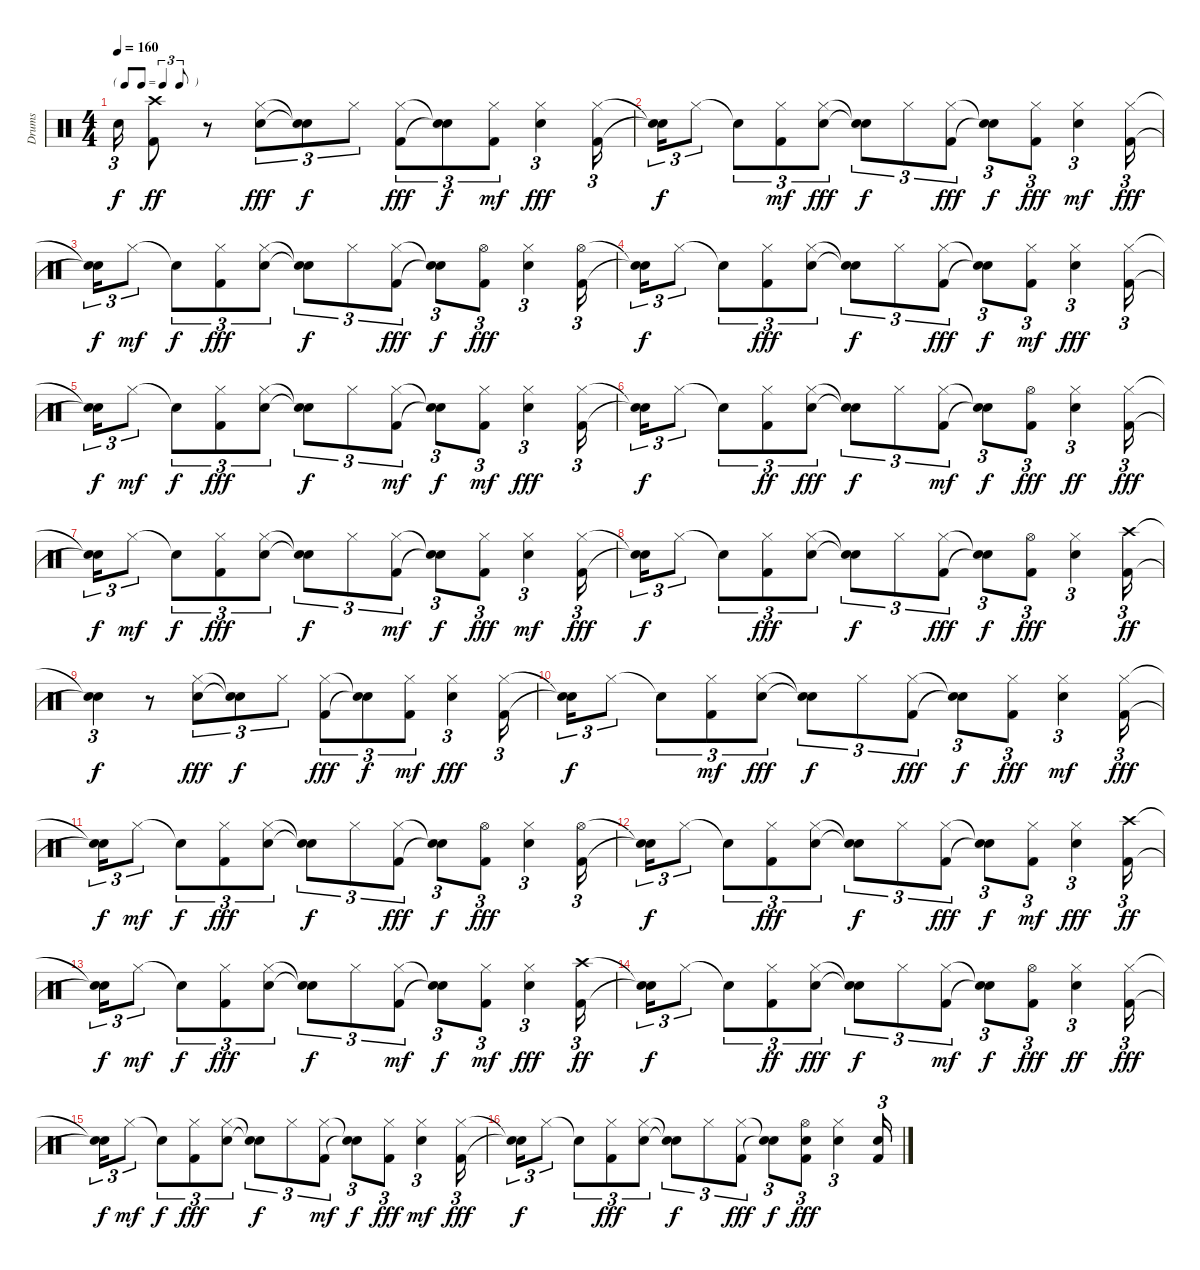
\track ("Drums" "Drums") {instrument percussion}
\staff {score}
\articulation defaults
\ts (4 4)
\tf triplet8th
\tempo 160
\clef neutral
\ks c "Snare (hit)"{t}.16{tu (3 2) dy f}
("Kick (hit) 2" "Crash high (hit)").8{dy ff} r.8 ("Hi-Hat (closed)" "Electric Snare (hit)").8{tu (3 2) dy fff} ("Snare (hit)"{t} "Snare (hit)"{t}).8{tu (3 2) dy f} "Hi-Hat (closed)".8{tu (3 2)} ("Kick (hit) 2" "Hi-Hat (closed)").8{tu (3 2) dy fff} ("Snare (hit)"{t} "Snare (hit)"{t}).8{tu (3 2) dy f} ("Kick (hit) 2" "Hi-Hat (closed)").8{tu (3 2) dy mf} ("Electric Snare (hit)" "Hi-Hat (closed)").4{tu (3 2) dy fff} ("Kick (hit) 2" "Hi-Hat (closed)").16{tu (3 2)} |
("Snare (hit)"{t} "Snare (hit)"{t}).16{tu (3 2) dy f} "Hi-Hat (closed)".8{tu (3 2)} "Snare (hit)"{t}.8{tu (3 2)} ("Kick (hit) 2" "Hi-Hat (closed)").8{tu (3 2) dy mf} ("Electric Snare (hit)" "Hi-Hat (closed)").8{tu (3 2) dy fff} ("Snare (hit)"{t} "Snare (hit)"{t}).8{tu (3 2) dy f} "Hi-Hat (closed)".8{tu (3 2)} ("Kick (hit) 2" "Hi-Hat (closed)").8{tu (3 2) dy fff} ("Snare (hit)"{t} "Snare (hit)"{t}).8{tu (3 2) dy f} ("Kick (hit) 2" "Hi-Hat (closed)").8{tu (3 2) dy fff} ("Electric Snare (hit)" "Hi-Hat (closed)").4{tu (3 2) dy mf} ("Kick (hit) 2" "Hi-Hat (closed)").16{tu (3 2) dy fff} |
("Snare (hit)"{t} "Snare (hit)"{t}).16{tu (3 2) dy f} "Hi-Hat (closed)".8{tu (3 2) dy mf} "Snare (hit)"{t}.8{tu (3 2) dy f} ("Kick (hit) 2" "Hi-Hat (closed)").8{tu (3 2) dy fff} ("Hi-Hat (closed)" "Electric Snare (hit)").8{tu (3 2)} ("Snare (hit)"{t} "Snare (hit)"{t}).8{tu (3 2) dy f} "Hi-Hat (closed)".8{tu (3 2)} ("Kick (hit) 2" "Hi-Hat (closed)").8{tu (3 2) dy fff} ("Snare (hit)"{t} "Snare (hit)"{t}).8{tu (3 2) dy f} ("Kick (hit) 2" "Hi-Hat (open)").8{tu (3 2) dy fff} ("Hi-Hat (closed)" "Electric Snare (hit)").4{tu (3 2)} ("Kick (hit) 2" "Hi-Hat (open)").16{tu (3 2)} |
("Snare (hit)"{t} "Snare (hit)"{t}).16{tu (3 2) dy f} "Hi-Hat (closed)".8{tu (3 2)} "Snare (hit)"{t}.8{tu (3 2)} ("Kick (hit) 2" "Hi-Hat (closed)").8{tu (3 2) dy fff} ("Hi-Hat (closed)" "Electric Snare (hit)").8{tu (3 2)} ("Snare (hit)"{t} "Snare (hit)"{t}).8{tu (3 2) dy f} "Hi-Hat (closed)".8{tu (3 2)} ("Kick (hit) 2" "Hi-Hat (closed)").8{tu (3 2) dy fff} ("Snare (hit)"{t} "Snare (hit)"{t}).8{tu (3 2) dy f} ("Kick (hit) 2" "Hi-Hat (closed)").8{tu (3 2) dy mf} ("Electric Snare (hit)" "Hi-Hat (closed)").4{tu (3 2) dy fff} ("Kick (hit) 2" "Hi-Hat (closed)").16{tu (3 2)} |
("Snare (hit)"{t} "Snare (hit)"{t}).16{tu (3 2) dy f} "Hi-Hat (closed)".8{tu (3 2) dy mf} "Snare (hit)"{t}.8{tu (3 2) dy f} ("Kick (hit) 2" "Hi-Hat (closed)").8{tu (3 2) dy fff} ("Electric Snare (hit)" "Hi-Hat (closed)").8{tu (3 2)} ("Snare (hit)"{t} "Snare (hit)"{t}).8{tu (3 2) dy f} "Hi-Hat (closed)".8{tu (3 2)} ("Kick (hit) 2" "Hi-Hat (closed)").8{tu (3 2) dy mf} ("Snare (hit)"{t} "Snare (hit)"{t}).8{tu (3 2) dy f} ("Kick (hit) 2" "Hi-Hat (closed)").8{tu (3 2) dy mf} ("Electric Snare (hit)" "Hi-Hat (closed)").4{tu (3 2) dy fff} ("Kick (hit) 2" "Hi-Hat (closed)").16{tu (3 2)} |
("Snare (hit)"{t} "Snare (hit)"{t}).16{tu (3 2) dy f} "Hi-Hat (closed)".8{tu (3 2)} "Snare (hit)"{t}.8{tu (3 2)} ("Kick (hit) 2" "Hi-Hat (closed)").8{tu (3 2) dy ff} ("Hi-Hat (closed)" "Electric Snare (hit)").8{tu (3 2) dy fff} ("Snare (hit)"{t} "Snare (hit)"{t}).8{tu (3 2) dy f} "Hi-Hat (closed)".8{tu (3 2)} ("Kick (hit) 2" "Hi-Hat (closed)").8{tu (3 2) dy mf} ("Snare (hit)"{t} "Snare (hit)"{t}).8{tu (3 2) dy f} ("Kick (hit) 2" "Hi-Hat (open)").8{tu (3 2) dy fff} ("Electric Snare (hit)" "Hi-Hat (closed)").4{tu (3 2) dy ff} ("Kick (hit) 2" "Hi-Hat (closed)").16{tu (3 2) dy fff} |
("Snare (hit)"{t} "Snare (hit)"{t}).16{tu (3 2) dy f} "Hi-Hat (closed)".8{tu (3 2) dy mf} "Snare (hit)"{t}.8{tu (3 2) dy f} ("Kick (hit) 2" "Hi-Hat (closed)").8{tu (3 2) dy fff} ("Hi-Hat (closed)" "Electric Snare (hit)").8{tu (3 2)} ("Snare (hit)"{t} "Snare (hit)"{t}).8{tu (3 2) dy f} "Hi-Hat (closed)".8{tu (3 2)} ("Kick (hit) 2" "Hi-Hat (closed)").8{tu (3 2) dy mf} ("Snare (hit)"{t} "Snare (hit)"{t}).8{tu (3 2) dy f} ("Kick (hit) 2" "Hi-Hat (closed)").8{tu (3 2) dy fff} ("Electric Snare (hit)" "Hi-Hat (closed)").4{tu (3 2) dy mf} ("Kick (hit) 2" "Hi-Hat (closed)").16{tu (3 2) dy fff} |
("Snare (hit)"{t} "Snare (hit)"{t}).16{tu (3 2) dy f} "Hi-Hat (closed)".8{tu (3 2)} "Snare (hit)"{t}.8{tu (3 2)} ("Kick (hit) 2" "Hi-Hat (closed)").8{tu (3 2) dy fff} ("Hi-Hat (closed)" "Electric Snare (hit)").8{tu (3 2)} ("Snare (hit)"{t} "Snare (hit)"{t}).8{tu (3 2) dy f} "Hi-Hat (closed)".8{tu (3 2)} ("Kick (hit) 2" "Hi-Hat (closed)").8{tu (3 2) dy fff} ("Snare (hit)"{t} "Snare (hit)"{t}).8{tu (3 2) dy f} ("Kick (hit) 2" "Hi-Hat (open)").8{tu (3 2) dy fff} ("Hi-Hat (closed)" "Electric Snare (hit)").4{tu (3 2)} ("Kick (hit) 2" "Crash high (hit)").16{tu (3 2) dy ff} |
("Snare (hit)"{t} "Snare (hit)"{t}).4{tu (3 2) dy f} r.8 ("Hi-Hat (closed)" "Electric Snare (hit)").8{tu (3 2) dy fff} ("Snare (hit)"{t} "Snare (hit)"{t}).8{tu (3 2) dy f} "Hi-Hat (closed)".8{tu (3 2)} ("Kick (hit) 2" "Hi-Hat (closed)").8{tu (3 2) dy fff} ("Snare (hit)"{t} "Snare (hit)"{t}).8{tu (3 2) dy f} ("Kick (hit) 2" "Hi-Hat (closed)").8{tu (3 2) dy mf} ("Electric Snare (hit)" "Hi-Hat (closed)").4{tu (3 2) dy fff} ("Kick (hit) 2" "Hi-Hat (closed)").16{tu (3 2)} |
("Snare (hit)"{t} "Snare (hit)"{t}).16{tu (3 2) dy f} "Hi-Hat (closed)".8{tu (3 2)} "Snare (hit)"{t}.8{tu (3 2)} ("Kick (hit) 2" "Hi-Hat (closed)").8{tu (3 2) dy mf} ("Electric Snare (hit)" "Hi-Hat (closed)").8{tu (3 2) dy fff} ("Snare (hit)"{t} "Snare (hit)"{t}).8{tu (3 2) dy f} "Hi-Hat (closed)".8{tu (3 2)} ("Kick (hit) 2" "Hi-Hat (closed)").8{tu (3 2) dy fff} ("Snare (hit)"{t} "Snare (hit)"{t}).8{tu (3 2) dy f} ("Kick (hit) 2" "Hi-Hat (closed)").8{tu (3 2) dy fff} ("Electric Snare (hit)" "Hi-Hat (closed)").4{tu (3 2) dy mf} ("Kick (hit) 2" "Hi-Hat (closed)").16{tu (3 2) dy fff} |
("Snare (hit)"{t} "Snare (hit)"{t}).16{tu (3 2) dy f} "Hi-Hat (closed)".8{tu (3 2) dy mf} "Snare (hit)"{t}.8{tu (3 2) dy f} ("Kick (hit) 2" "Hi-Hat (closed)").8{tu (3 2) dy fff} ("Hi-Hat (closed)" "Electric Snare (hit)").8{tu (3 2)} ("Snare (hit)"{t} "Snare (hit)"{t}).8{tu (3 2) dy f} "Hi-Hat (closed)".8{tu (3 2)} ("Kick (hit) 2" "Hi-Hat (closed)").8{tu (3 2) dy fff} ("Snare (hit)"{t} "Snare (hit)"{t}).8{tu (3 2) dy f} ("Kick (hit) 2" "Hi-Hat (open)").8{tu (3 2) dy fff} ("Hi-Hat (closed)" "Electric Snare (hit)").4{tu (3 2)} ("Kick (hit) 2" "Hi-Hat (open)").16{tu (3 2)} |
("Snare (hit)"{t} "Snare (hit)"{t}).16{tu (3 2) dy f} "Hi-Hat (closed)".8{tu (3 2)} "Snare (hit)"{t}.8{tu (3 2)} ("Kick (hit) 2" "Hi-Hat (closed)").8{tu (3 2) dy fff} ("Hi-Hat (closed)" "Electric Snare (hit)").8{tu (3 2)} ("Snare (hit)"{t} "Snare (hit)"{t}).8{tu (3 2) dy f} "Hi-Hat (closed)".8{tu (3 2)} ("Kick (hit) 2" "Hi-Hat (closed)").8{tu (3 2) dy fff} ("Snare (hit)"{t} "Snare (hit)"{t}).8{tu (3 2) dy f} ("Kick (hit) 2" "Hi-Hat (closed)").8{tu (3 2) dy mf} ("Electric Snare (hit)" "Hi-Hat (closed)").4{tu (3 2) dy fff} ("Kick (hit) 2" "Crash high (hit)").16{tu (3 2) dy ff} |
("Snare (hit)"{t} "Snare (hit)"{t}).16{tu (3 2) dy f} "Hi-Hat (closed)".8{tu (3 2) dy mf} "Snare (hit)"{t}.8{tu (3 2) dy f} ("Kick (hit) 2" "Hi-Hat (closed)").8{tu (3 2) dy fff} ("Electric Snare (hit)" "Hi-Hat (closed)").8{tu (3 2)} ("Snare (hit)"{t} "Snare (hit)"{t}).8{tu (3 2) dy f} "Hi-Hat (closed)".8{tu (3 2)} ("Kick (hit) 2" "Hi-Hat (closed)").8{tu (3 2) dy mf} ("Snare (hit)"{t} "Snare (hit)"{t}).8{tu (3 2) dy f} ("Kick (hit) 2" "Hi-Hat (closed)").8{tu (3 2) dy mf} ("Electric Snare (hit)" "Hi-Hat (closed)").4{tu (3 2) dy fff} ("Kick (hit) 2" "Crash high (hit)").16{tu (3 2) dy ff} |
("Snare (hit)"{t} "Snare (hit)"{t}).16{tu (3 2) dy f} "Hi-Hat (closed)".8{tu (3 2)} "Snare (hit)"{t}.8{tu (3 2)} ("Kick (hit) 2" "Hi-Hat (closed)").8{tu (3 2) dy ff} ("Hi-Hat (closed)" "Electric Snare (hit)").8{tu (3 2) dy fff} ("Snare (hit)"{t} "Snare (hit)"{t}).8{tu (3 2) dy f} "Hi-Hat (closed)".8{tu (3 2)} ("Kick (hit) 2" "Hi-Hat (closed)").8{tu (3 2) dy mf} ("Snare (hit)"{t} "Snare (hit)"{t}).8{tu (3 2) dy f} ("Kick (hit) 2" "Hi-Hat (open)").8{tu (3 2) dy fff} ("Electric Snare (hit)" "Hi-Hat (closed)").4{tu (3 2) dy ff} ("Kick (hit) 2" "Hi-Hat (closed)").16{tu (3 2) dy fff} |
("Snare (hit)"{t} "Snare (hit)"{t}).16{tu (3 2) dy f} "Hi-Hat (closed)".8{tu (3 2) dy mf} "Snare (hit)"{t}.8{tu (3 2) dy f} ("Kick (hit) 2" "Hi-Hat (closed)").8{tu (3 2) dy fff} ("Hi-Hat (closed)" "Electric Snare (hit)").8{tu (3 2)} ("Snare (hit)"{t} "Snare (hit)"{t}).8{tu (3 2) dy f} "Hi-Hat (closed)".8{tu (3 2)} ("Kick (hit) 2" "Hi-Hat (closed)").8{tu (3 2) dy mf} ("Snare (hit)"{t} "Snare (hit)"{t}).8{tu (3 2) dy f} ("Kick (hit) 2" "Hi-Hat (closed)").8{tu (3 2) dy fff} ("Electric Snare (hit)" "Hi-Hat (closed)").4{tu (3 2) dy mf} ("Kick (hit) 2" "Hi-Hat (closed)").16{tu (3 2) dy fff} |
("Snare (hit)"{t} "Snare (hit)"{t}).16{tu (3 2) dy f} "Hi-Hat (closed)".8{tu (3 2)} "Snare (hit)"{t}.8{tu (3 2)} ("Kick (hit) 2" "Hi-Hat (closed)").8{tu (3 2) dy fff} ("Hi-Hat (closed)" "Electric Snare (hit)").8{tu (3 2)} ("Snare (hit)"{t} "Snare (hit)"{t}).8{tu (3 2) dy f} "Hi-Hat (closed)".8{tu (3 2)} ("Kick (hit) 2" "Hi-Hat (closed)").8{tu (3 2) dy fff} ("Snare (hit)"{t} "Snare (hit)"{t}).8{tu (3 2) dy f} ("Kick (hit) 2" "Electric Snare (hit)" "Hi-Hat (open)").8{tu (3 2) dy fff} ("Hi-Hat (closed)" "Electric Snare (hit)").4{tu (3 2)} ("Kick (hit) 2" "Electric Snare (hit)").16{tu (3 2)}
